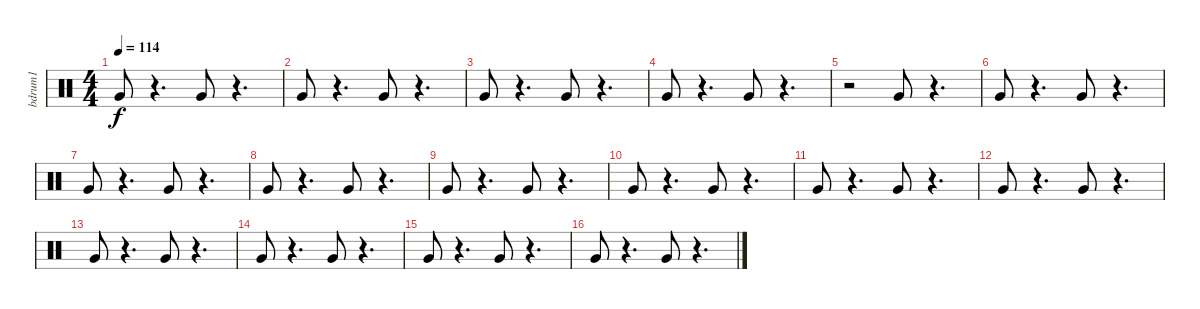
\track ("bdrum1              " "bdrum1    ") {instrument percussion}
\staff {score}
\articulation defaults
\ts (4 4)
\tempo 114
\clef neutral
\ks c "Very Low Tom (hit)".8{dy f}
r.4{d} "Very Low Tom (hit)".8 r.4{d} |
"Very Low Tom (hit)".8 r.4{d} "Very Low Tom (hit)".8 r.4{d} |
"Very Low Tom (hit)".8 r.4{d} "Very Low Tom (hit)".8 r.4{d} |
"Very Low Tom (hit)".8 r.4{d} "Very Low Tom (hit)".8 r.4{d} |
r.2 "Very Low Tom (hit)".8 r.4{d} |
"Very Low Tom (hit)".8 r.4{d} "Very Low Tom (hit)".8 r.4{d} |
"Very Low Tom (hit)".8 r.4{d} "Very Low Tom (hit)".8 r.4{d} |
"Very Low Tom (hit)".8 r.4{d} "Very Low Tom (hit)".8 r.4{d} |
"Very Low Tom (hit)".8 r.4{d} "Very Low Tom (hit)".8 r.4{d} |
"Very Low Tom (hit)".8 r.4{d} "Very Low Tom (hit)".8 r.4{d} |
"Very Low Tom (hit)".8 r.4{d} "Very Low Tom (hit)".8 r.4{d} |
"Very Low Tom (hit)".8 r.4{d} "Very Low Tom (hit)".8 r.4{d} |
"Very Low Tom (hit)".8 r.4{d} "Very Low Tom (hit)".8 r.4{d} |
"Very Low Tom (hit)".8 r.4{d} "Very Low Tom (hit)".8 r.4{d} |
"Very Low Tom (hit)".8 r.4{d} "Very Low Tom (hit)".8 r.4{d} |
"Very Low Tom (hit)".8 r.4{d} "Very Low Tom (hit)".8 r.4{d}
